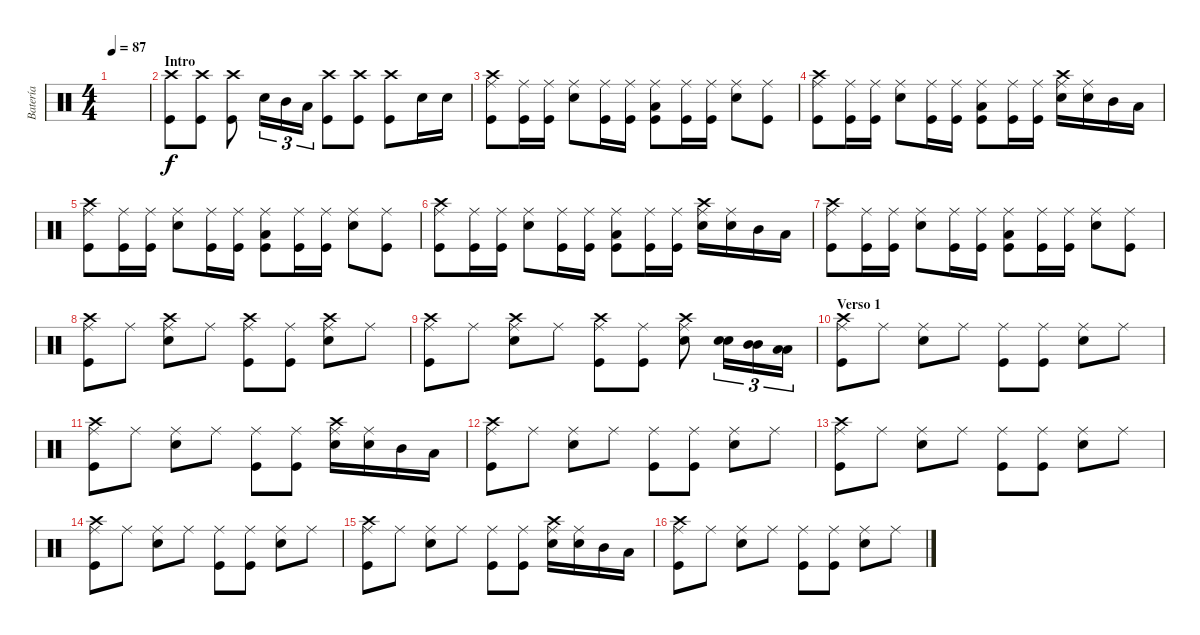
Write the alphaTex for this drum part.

\track ("Batería" "Batería") {instrument percussion}
\staff {score}
\articulation defaults
\ts (4 4)
\tempo 87
\clef neutral
\ks c
|
\section ("" "Intro")
("Crash high (hit)" "Kick (hit)").8 ("Crash high (hit)" "Kick (hit)").8 ("Crash high (hit)" "Kick (hit)").8 "Snare (hit) 2".16{tu (3 2)} "Mid Tom (hit)".16{tu (3 2)} "Low Tom (hit)".16{tu (3 2)} ("Crash high (hit)" "Kick (hit)").8 ("Crash high (hit)" "Kick (hit)").8 ("Crash high (hit)" "Kick (hit)").8 "Snare (hit) 2".16 "Snare (hit) 2".16 |
("Crash high (hit)" "Ride (middle)" "Kick (hit)").8 ("Ride (middle)" "Kick (hit)").16 ("Ride (middle)" "Kick (hit)").16 ("Ride (middle)" "Snare (hit) 2").8 ("Ride (middle)" "Kick (hit)").16 ("Ride (middle)" "Kick (hit)").16 ("Ride (middle)" "Low Tom (hit)" "Kick (hit)").8 ("Ride (middle)" "Kick (hit)").16 ("Ride (middle)" "Kick (hit)").16 ("Ride (middle)" "Snare (hit) 2").8 ("Ride (middle)" "Kick (hit)").8 |
("Crash high (hit)" "Ride (middle)" "Kick (hit)").8 ("Ride (middle)" "Kick (hit)").16 ("Ride (middle)" "Kick (hit)").16 ("Ride (middle)" "Snare (hit) 2").8 ("Ride (middle)" "Kick (hit)").16 ("Ride (middle)" "Kick (hit)").16 ("Ride (middle)" "Low Tom (hit)" "Kick (hit)").8 ("Ride (middle)" "Kick (hit)").16 ("Ride (middle)" "Kick (hit)").16 ("Crash high (hit)" "Ride (middle)" "Snare (hit) 2").16 ("Ride (middle)" "Snare (hit) 2").16 "Mid Tom (hit)".16 "Low Tom (hit)".16 |
("Crash high (hit)" "Ride (middle)" "Kick (hit)").8 ("Ride (middle)" "Kick (hit)").16 ("Ride (middle)" "Kick (hit)").16 ("Ride (middle)" "Snare (hit) 2").8 ("Ride (middle)" "Kick (hit)").16 ("Ride (middle)" "Kick (hit)").16 ("Ride (middle)" "Low Tom (hit)" "Kick (hit)").8 ("Ride (middle)" "Kick (hit)").16 ("Ride (middle)" "Kick (hit)").16 ("Ride (middle)" "Snare (hit) 2").8 ("Ride (middle)" "Kick (hit)").8 |
("Crash high (hit)" "Ride (middle)" "Kick (hit)").8 ("Ride (middle)" "Kick (hit)").16 ("Ride (middle)" "Kick (hit)").16 ("Ride (middle)" "Snare (hit) 2").8 ("Ride (middle)" "Kick (hit)").16 ("Ride (middle)" "Kick (hit)").16 ("Ride (middle)" "Low Tom (hit)" "Kick (hit)").8 ("Ride (middle)" "Kick (hit)").16 ("Ride (middle)" "Kick (hit)").16 ("Crash high (hit)" "Ride (middle)" "Snare (hit) 2").16 ("Ride (middle)" "Snare (hit) 2").16 "Mid Tom (hit)".16 "Low Tom (hit)".16 |
("Crash high (hit)" "Ride (middle)" "Kick (hit)").8 ("Ride (middle)" "Kick (hit)").16 ("Ride (middle)" "Kick (hit)").16 ("Ride (middle)" "Snare (hit) 2").8 ("Ride (middle)" "Kick (hit)").16 ("Ride (middle)" "Kick (hit)").16 ("Ride (middle)" "Low Tom (hit)" "Kick (hit)").8 ("Ride (middle)" "Kick (hit)").16 ("Ride (middle)" "Kick (hit)").16 ("Ride (middle)" "Snare (hit) 2").8 ("Ride (middle)" "Kick (hit)").8 |
("Crash high (hit)" "Ride (middle)" "Kick (hit)").8 "Ride (middle)".8 ("Crash high (hit)" "Ride (middle)" "Snare (hit) 2").8 "Ride (middle)".8 ("Crash high (hit)" "Ride (middle)" "Kick (hit)").8 ("Ride (middle)" "Kick (hit)").8 ("Crash high (hit)" "Ride (middle)" "Snare (hit) 2").8 "Ride (middle)".8 |
("Crash high (hit)" "Ride (middle)" "Kick (hit)").8 "Ride (middle)".8 ("Crash high (hit)" "Ride (middle)" "Snare (hit) 2").8 "Ride (middle)".8 ("Crash high (hit)" "Ride (middle)" "Kick (hit)").8 ("Ride (middle)" "Kick (hit)").8 ("Crash high (hit)" "Ride (middle)" "Snare (hit) 2").8 ("Snare (hit) 2" "Snare (hit) 2").16{tu (3 2)} ("Mid Tom (hit)" "Mid Tom (hit)").16{tu (3 2)} ("Low Tom (hit)" "Low Tom (hit)").16{tu (3 2)} |
\section ("" "Verso 1")
("Crash high (hit)" "Ride (middle)" "Kick (hit)").8 "Ride (middle)".8 ("Ride (middle)" "Snare (hit) 2").8 "Ride (middle)".8 ("Ride (middle)" "Kick (hit)").8 ("Ride (middle)" "Kick (hit)").8 ("Ride (middle)" "Snare (hit) 2").8 "Ride (middle)".8 |
("Crash high (hit)" "Ride (middle)" "Kick (hit)").8 "Ride (middle)".8 ("Ride (middle)" "Snare (hit) 2").8 "Ride (middle)".8 ("Ride (middle)" "Kick (hit)").8 ("Ride (middle)" "Kick (hit)").8 ("Crash high (hit)" "Ride (middle)" "Snare (hit) 2").16 ("Ride (middle)" "Snare (hit) 2").16 "Mid Tom (hit)".16 "Low Tom (hit)".16 |
("Crash high (hit)" "Ride (middle)" "Kick (hit)").8 "Ride (middle)".8 ("Ride (middle)" "Snare (hit) 2").8 "Ride (middle)".8 ("Ride (middle)" "Kick (hit)").8 ("Ride (middle)" "Kick (hit)").8 ("Ride (middle)" "Snare (hit) 2").8 "Ride (middle)".8 |
("Crash high (hit)" "Ride (middle)" "Kick (hit)").8 "Ride (middle)".8 ("Ride (middle)" "Snare (hit) 2").8 "Ride (middle)".8 ("Ride (middle)" "Kick (hit)").8 ("Ride (middle)" "Kick (hit)").8 ("Ride (middle)" "Snare (hit) 2").8 "Ride (middle)".8 |
("Crash high (hit)" "Ride (middle)" "Kick (hit)").8 "Ride (middle)".8 ("Ride (middle)" "Snare (hit) 2").8 "Ride (middle)".8 ("Ride (middle)" "Kick (hit)").8 ("Ride (middle)" "Kick (hit)").8 ("Ride (middle)" "Snare (hit) 2").8 "Ride (middle)".8 |
("Crash high (hit)" "Ride (middle)" "Kick (hit)").8 "Ride (middle)".8 ("Ride (middle)" "Snare (hit) 2").8 "Ride (middle)".8 ("Ride (middle)" "Kick (hit)").8 ("Ride (middle)" "Kick (hit)").8 ("Crash high (hit)" "Ride (middle)" "Snare (hit) 2").16 ("Ride (middle)" "Snare (hit) 2").16 "Mid Tom (hit)".16 "Low Tom (hit)".16 |
("Crash high (hit)" "Ride (middle)" "Kick (hit)").8 "Ride (middle)".8 ("Ride (middle)" "Snare (hit) 2").8 "Ride (middle)".8 ("Ride (middle)" "Kick (hit)").8 ("Ride (middle)" "Kick (hit)").8 ("Ride (middle)" "Snare (hit) 2").8 "Ride (middle)".8
